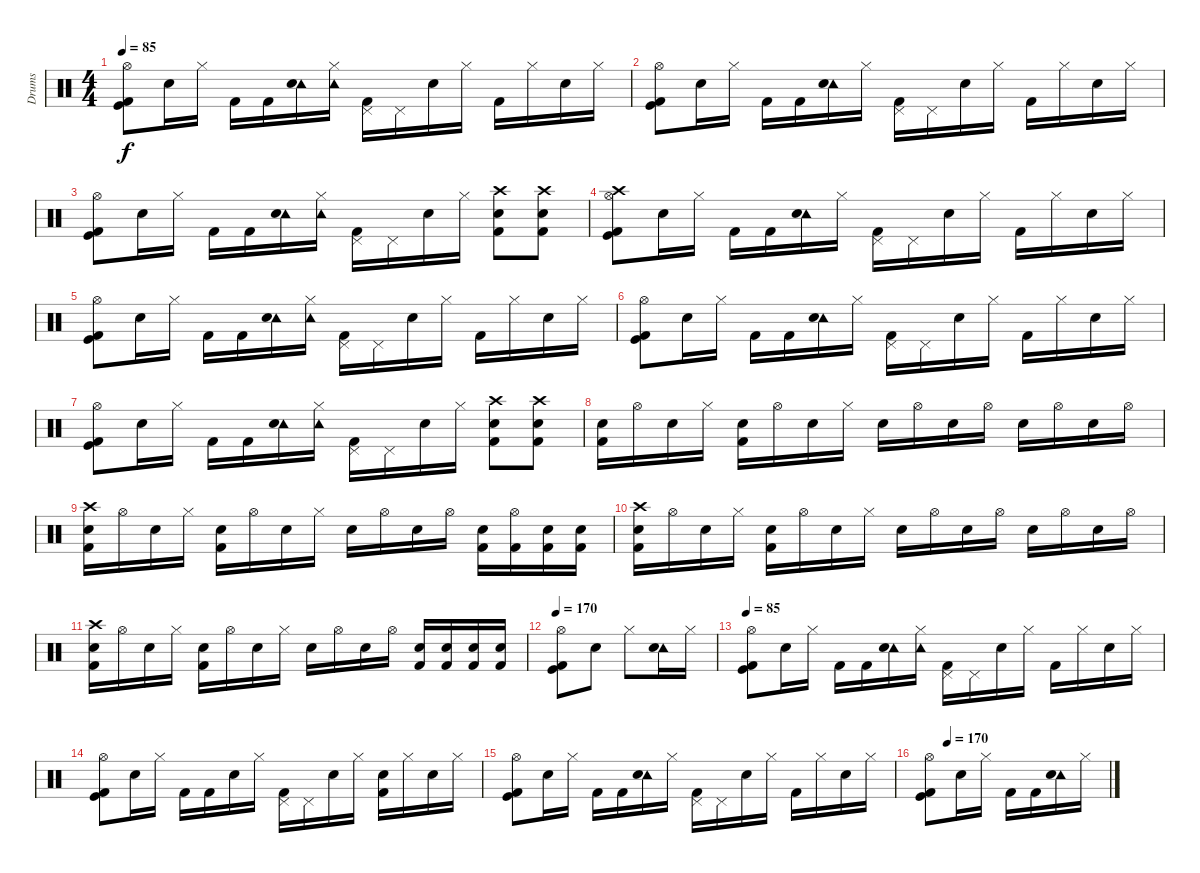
\track ("Drums" "Drums") {instrument percussion}
\staff {score}
\articulation defaults
\ts (4 4)
\tempo 85
\clef neutral
\ks c
("Hi-Hat (open)" "Kick (hit) 2" "Kick (hit)").8{dy f} "Snare (hit) 2".16 "Hi-Hat (closed)".16 "Kick (hit) 2".16 "Kick (hit) 2".16 ("Tambourine (hit)" "Snare (hit) 2").16 ("Tambourine (hit)" "Hi-Hat (closed)").16 ("Pedal Hi-Hat (hit)" "Kick (hit) 2").16 "Pedal Hi-Hat (hit)".16 "Snare (hit) 2".16 "Hi-Hat (closed)".16 "Kick (hit) 2".16 "Hi-Hat (closed)".16 "Snare (hit) 2".16 "Hi-Hat (closed)".16 |
("Hi-Hat (open)" "Kick (hit) 2" "Kick (hit)").8 "Snare (hit) 2".16 "Hi-Hat (closed)".16 "Kick (hit) 2".16 "Kick (hit) 2".16 ("Tambourine (hit)" "Snare (hit) 2").16 "Hi-Hat (closed)".16 ("Pedal Hi-Hat (hit)" "Kick (hit) 2").16 "Pedal Hi-Hat (hit)".16 "Snare (hit) 2".16 "Hi-Hat (closed)".16 "Kick (hit) 2".16 "Hi-Hat (closed)".16 "Snare (hit) 2".16 "Hi-Hat (closed)".16 |
("Hi-Hat (open)" "Kick (hit) 2" "Kick (hit)").8 "Snare (hit) 2".16 "Hi-Hat (closed)".16 "Kick (hit) 2".16 "Kick (hit) 2".16 ("Tambourine (hit)" "Snare (hit) 2").16 ("Tambourine (hit)" "Hi-Hat (closed)").16 ("Pedal Hi-Hat (hit)" "Kick (hit) 2").16 "Pedal Hi-Hat (hit)".16 "Snare (hit) 2".16 "Hi-Hat (closed)".16 ("Crash high (hit)" "Snare (hit) 2" "Kick (hit) 2").8 ("Crash high (hit)" "Snare (hit) 2" "Kick (hit) 2").8 |
("Crash high (hit)" "Hi-Hat (open)" "Kick (hit) 2" "Kick (hit)").8 "Snare (hit) 2".16 "Hi-Hat (closed)".16 "Kick (hit) 2".16 "Kick (hit) 2".16 ("Tambourine (hit)" "Snare (hit) 2").16 "Hi-Hat (closed)".16 ("Pedal Hi-Hat (hit)" "Kick (hit) 2").16 "Pedal Hi-Hat (hit)".16 "Snare (hit) 2".16 "Hi-Hat (closed)".16 "Kick (hit) 2".16 "Hi-Hat (closed)".16 "Snare (hit) 2".16 "Hi-Hat (closed)".16 |
("Hi-Hat (open)" "Kick (hit) 2" "Kick (hit)").8 "Snare (hit) 2".16 "Hi-Hat (closed)".16 "Kick (hit) 2".16 "Kick (hit) 2".16 ("Tambourine (hit)" "Snare (hit) 2").16 ("Tambourine (hit)" "Hi-Hat (closed)").16 ("Pedal Hi-Hat (hit)" "Kick (hit) 2").16 "Pedal Hi-Hat (hit)".16 "Snare (hit) 2".16 "Hi-Hat (closed)".16 "Kick (hit) 2".16 "Hi-Hat (closed)".16 "Snare (hit) 2".16 "Hi-Hat (closed)".16 |
("Hi-Hat (open)" "Kick (hit) 2" "Kick (hit)").8 "Snare (hit) 2".16 "Hi-Hat (closed)".16 "Kick (hit) 2".16 "Kick (hit) 2".16 ("Tambourine (hit)" "Snare (hit) 2").16 "Hi-Hat (closed)".16 ("Pedal Hi-Hat (hit)" "Kick (hit) 2").16 "Pedal Hi-Hat (hit)".16 "Snare (hit) 2".16 "Hi-Hat (closed)".16 "Kick (hit) 2".16 "Hi-Hat (closed)".16 "Snare (hit) 2".16 "Hi-Hat (closed)".16 |
("Hi-Hat (open)" "Kick (hit) 2" "Kick (hit)").8 "Snare (hit) 2".16 "Hi-Hat (closed)".16 "Kick (hit) 2".16 "Kick (hit) 2".16 ("Tambourine (hit)" "Snare (hit) 2").16 ("Tambourine (hit)" "Hi-Hat (closed)").16 ("Pedal Hi-Hat (hit)" "Kick (hit) 2").16 "Pedal Hi-Hat (hit)".16 "Snare (hit) 2".16 "Hi-Hat (closed)".16 ("Crash high (hit)" "Snare (hit) 2" "Kick (hit) 2").8 ("Crash high (hit)" "Snare (hit) 2" "Kick (hit) 2").8 |
("Snare (hit) 2" "Kick (hit) 2").16 "Hi-Hat (open)".16 "Snare (hit) 2".16 "Hi-Hat (closed)".16 ("Snare (hit) 2" "Kick (hit) 2").16 "Hi-Hat (open)".16 "Snare (hit) 2".16 "Hi-Hat (closed)".16 "Snare (hit) 2".16 "Hi-Hat (open)".16 "Snare (hit) 2".16 "Hi-Hat (open)".16 "Snare (hit) 2".16 "Hi-Hat (open)".16 "Snare (hit) 2".16 "Hi-Hat (open)".16 |
("Crash high (hit)" "Snare (hit) 2" "Kick (hit) 2").16 "Hi-Hat (open)".16 "Snare (hit) 2".16 "Hi-Hat (closed)".16 ("Snare (hit) 2" "Kick (hit) 2").16 "Hi-Hat (open)".16 "Snare (hit) 2".16 "Hi-Hat (closed)".16 "Snare (hit) 2".16 "Hi-Hat (open)".16 "Snare (hit) 2".16 "Hi-Hat (open)".16 ("Snare (hit) 2" "Kick (hit) 2").16 ("Hi-Hat (open)" "Kick (hit) 2").16 ("Snare (hit) 2" "Kick (hit) 2").16 ("Snare (hit) 2" "Kick (hit) 2").16 |
("Crash high (hit)" "Snare (hit) 2" "Kick (hit) 2").16 "Hi-Hat (open)".16 "Snare (hit) 2".16 "Hi-Hat (closed)".16 ("Snare (hit) 2" "Kick (hit) 2").16 "Hi-Hat (open)".16 "Snare (hit) 2".16 "Hi-Hat (closed)".16 "Snare (hit) 2".16 "Hi-Hat (open)".16 "Snare (hit) 2".16 "Hi-Hat (open)".16 "Snare (hit) 2".16 "Hi-Hat (open)".16 "Snare (hit) 2".16 "Hi-Hat (open)".16 |
("Crash high (hit)" "Snare (hit) 2" "Kick (hit) 2").16 "Hi-Hat (open)".16 "Snare (hit) 2".16 "Hi-Hat (closed)".16 ("Snare (hit) 2" "Kick (hit) 2").16 "Hi-Hat (open)".16 "Snare (hit) 2".16 "Hi-Hat (closed)".16 "Snare (hit) 2".16 "Hi-Hat (open)".16 "Snare (hit) 2".16 "Hi-Hat (open)".16 ("Snare (hit) 2" "Kick (hit) 2").16 ("Snare (hit) 2" "Kick (hit) 2").16 ("Snare (hit) 2" "Kick (hit) 2").16 ("Snare (hit) 2" "Kick (hit) 2").16 |
\tempo 170
("Hi-Hat (open)" "Kick (hit) 2" "Kick (hit)").8 "Snare (hit) 2".8 "Hi-Hat (closed)".8 ("Tambourine (hit)" "Snare (hit) 2").16 "Hi-Hat (closed)".16 |
\tempo 85
("Hi-Hat (open)" "Kick (hit) 2" "Kick (hit)").8 "Snare (hit) 2".16 "Hi-Hat (closed)".16 "Kick (hit) 2".16 "Kick (hit) 2".16 ("Tambourine (hit)" "Snare (hit) 2").16 ("Tambourine (hit)" "Hi-Hat (closed)").16 ("Pedal Hi-Hat (hit)" "Kick (hit) 2").16 "Pedal Hi-Hat (hit)".16 "Snare (hit) 2".16 "Hi-Hat (closed)".16 "Kick (hit) 2".16 "Hi-Hat (closed)".16 "Snare (hit) 2".16 "Hi-Hat (closed)".16 |
("Hi-Hat (open)" "Kick (hit) 2" "Kick (hit)").8 "Snare (hit) 2".16 "Hi-Hat (closed)".16 "Kick (hit) 2".16 "Kick (hit) 2".16 "Snare (hit) 2".16 "Hi-Hat (closed)".16 ("Pedal Hi-Hat (hit)" "Kick (hit) 2").16 "Pedal Hi-Hat (hit)".16 "Snare (hit) 2".16 "Hi-Hat (closed)".16 ("Snare (hit) 2" "Kick (hit) 2").16 "Hi-Hat (closed)".16 "Snare (hit) 2".16 "Hi-Hat (closed)".16 |
("Hi-Hat (open)" "Kick (hit) 2" "Kick (hit)").8 "Snare (hit) 2".16 "Hi-Hat (closed)".16 "Kick (hit) 2".16 "Kick (hit) 2".16 ("Tambourine (hit)" "Snare (hit) 2").16 "Hi-Hat (closed)".16 ("Pedal Hi-Hat (hit)" "Kick (hit) 2").16 "Pedal Hi-Hat (hit)".16 "Snare (hit) 2".16 "Hi-Hat (closed)".16 "Kick (hit) 2".16 "Hi-Hat (closed)".16 "Snare (hit) 2".16 "Hi-Hat (closed)".16 |
\tempo (170 0.125)
("Hi-Hat (open)" "Kick (hit) 2" "Kick (hit)").8 "Snare (hit) 2".16 "Hi-Hat (closed)".16 "Kick (hit) 2".16 "Kick (hit) 2".16 ("Tambourine (hit)" "Snare (hit) 2").16 "Hi-Hat (closed)".16
